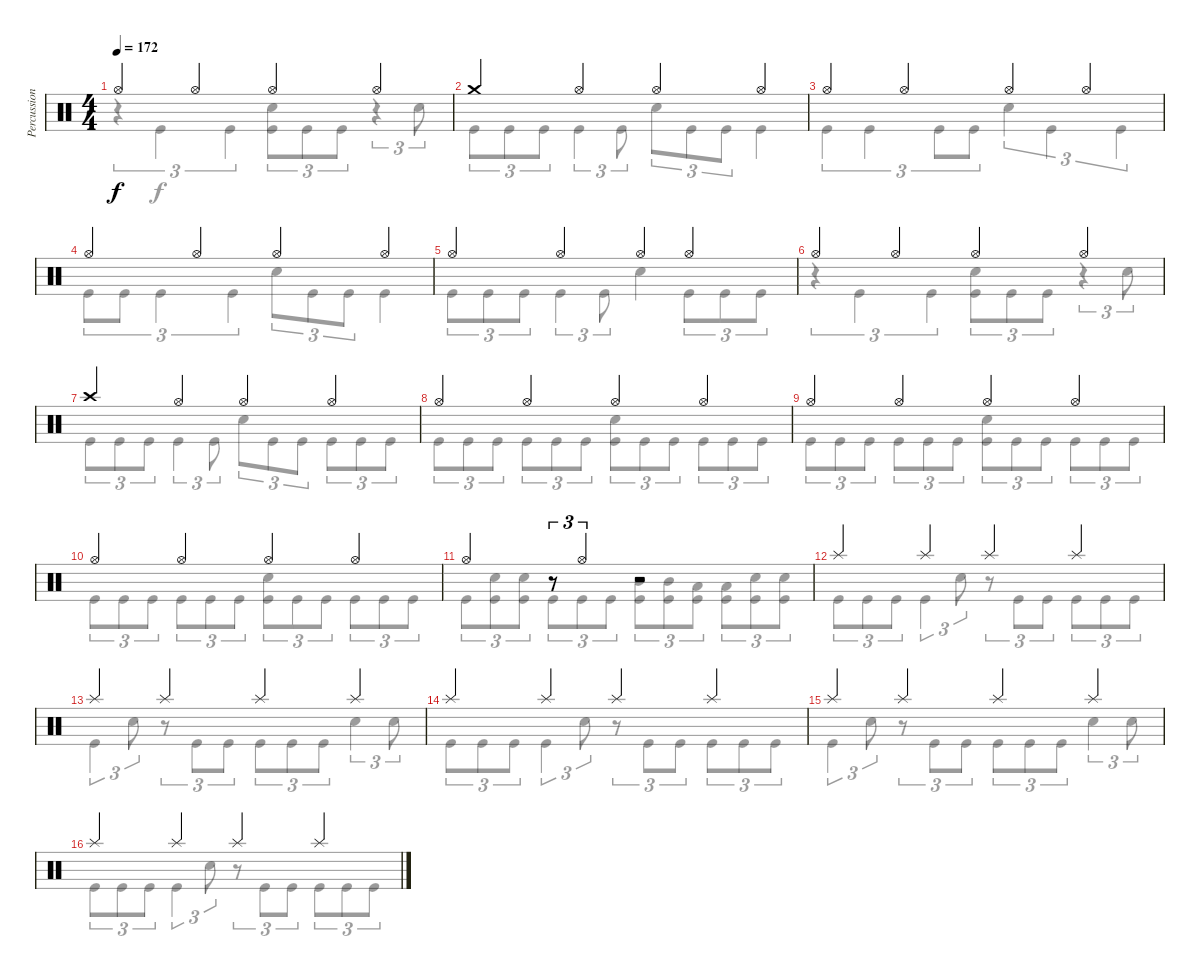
\track ("Percussions" "Percussion") {instrument percussion}
\staff {score}
\articulation defaults
\voice
\ts (4 4)
\tempo 172
\clef neutral
\ks c "Hi-Hat (open)".4{dy f} "Hi-Hat (open)".4 "Hi-Hat (open)".4 "Hi-Hat (open)".4
|
"Crash medium (hit)".4 "Hi-Hat (open)".4 "Hi-Hat (open)".4 "Hi-Hat (open)".4 |
"Hi-Hat (open)".4 "Hi-Hat (open)".4 "Hi-Hat (open)".4 "Hi-Hat (open)".4 |
"Hi-Hat (open)".4 "Hi-Hat (open)".4 "Hi-Hat (open)".4 "Hi-Hat (open)".4 |
"Hi-Hat (open)".4 "Hi-Hat (open)".4 "Hi-Hat (open)".4 "Hi-Hat (open)".4 |
"Hi-Hat (open)".4 "Hi-Hat (open)".4 "Hi-Hat (open)".4 "Hi-Hat (open)".4 |
"Crash high (hit)".4 "Hi-Hat (open)".4 "Hi-Hat (open)".4 "Hi-Hat (open)".4 |
"Hi-Hat (open)".4 "Hi-Hat (open)".4 "Hi-Hat (open)".4 "Hi-Hat (open)".4 |
"Hi-Hat (open)".4 "Hi-Hat (open)".4 "Hi-Hat (open)".4 "Hi-Hat (open)".4 |
"Hi-Hat (open)".4 "Hi-Hat (open)".4 "Hi-Hat (open)".4 "Hi-Hat (open)".4 |
"Hi-Hat (open)".4 r.8{tu (3 2)} "Hi-Hat (open)".4{tu (3 2)} r.2 |
"Splash (hit)".4 "Splash (hit)".4 "Splash (hit)".4 "Splash (hit)".4 |
"Splash (hit)".4 "Splash (hit)".4 "Splash (hit)".4 "Splash (hit)".4 |
"Splash (hit)".4 "Splash (hit)".4 "Splash (hit)".4 "Splash (hit)".4 |
"Splash (hit)".4 "Splash (hit)".4 "Splash (hit)".4 "Splash (hit)".4 |
"Splash (hit)".4 "Splash (hit)".4 "Splash (hit)".4 "Splash (hit)".4
\voice
\clef neutral
\ottava regular
\simile none
\ks c
r.4{tu (3 2) dy f} "Kick (hit)".4{tu (3 2)} "Kick (hit)".4{tu (3 2)} ("Snare (hit) 2" "Kick (hit)").8{tu (3 2)} "Kick (hit)".8{tu (3 2)} "Kick (hit)".8{tu (3 2)} r.4{tu (3 2)} "Snare (hit) 2".8{tu (3 2)} |
"Kick (hit)".8{tu (3 2)} "Kick (hit)".8{tu (3 2)} "Kick (hit)".8{tu (3 2)} "Kick (hit)".4{tu (3 2)} "Kick (hit)".8{tu (3 2)} "Snare (hit) 2".8{tu (3 2)} "Kick (hit)".8{tu (3 2)} "Kick (hit)".8{tu (3 2)} "Kick (hit)".4 |
"Kick (hit)".4{tu (3 2)} "Kick (hit)".4{tu (3 2)} "Kick (hit)".8{tu (3 2)} "Kick (hit)".8{tu (3 2)} "Snare (hit) 2".4{tu (3 2)} "Kick (hit)".4{tu (3 2)} "Kick (hit)".4{tu (3 2)} |
"Kick (hit)".8{tu (3 2)} "Kick (hit)".8{tu (3 2)} "Kick (hit)".4{tu (3 2)} "Kick (hit)".4{tu (3 2)} "Snare (hit) 2".8{tu (3 2)} "Kick (hit)".8{tu (3 2)} "Kick (hit)".8{tu (3 2)} "Kick (hit)".4 |
"Kick (hit)".8{tu (3 2)} "Kick (hit)".8{tu (3 2)} "Kick (hit)".8{tu (3 2)} "Kick (hit)".4{tu (3 2)} "Kick (hit)".8{tu (3 2)} "Snare (hit) 2".4 "Kick (hit)".8{tu (3 2)} "Kick (hit)".8{tu (3 2)} "Kick (hit)".8{tu (3 2)} |
r.4{tu (3 2)} "Kick (hit)".4{tu (3 2)} "Kick (hit)".4{tu (3 2)} ("Snare (hit) 2" "Kick (hit)").8{tu (3 2)} "Kick (hit)".8{tu (3 2)} "Kick (hit)".8{tu (3 2)} r.4{tu (3 2)} "Snare (hit) 2".8{tu (3 2)} |
"Kick (hit)".8{tu (3 2)} "Kick (hit)".8{tu (3 2)} "Kick (hit)".8{tu (3 2)} "Kick (hit)".4{tu (3 2)} "Kick (hit)".8{tu (3 2)} "Snare (hit) 2".8{tu (3 2)} "Kick (hit)".8{tu (3 2)} "Kick (hit)".8{tu (3 2)} "Kick (hit)".8{tu (3 2)} "Kick (hit)".8{tu (3 2)} "Kick (hit)".8{tu (3 2)} |
"Kick (hit)".8{tu (3 2)} "Kick (hit)".8{tu (3 2)} "Kick (hit)".8{tu (3 2)} "Kick (hit)".8{tu (3 2)} "Kick (hit)".8{tu (3 2)} "Kick (hit)".8{tu (3 2)} ("Snare (hit) 2" "Kick (hit)").8{tu (3 2)} "Kick (hit)".8{tu (3 2)} "Kick (hit)".8{tu (3 2)} "Kick (hit)".8{tu (3 2)} "Kick (hit)".8{tu (3 2)} "Kick (hit)".8{tu (3 2)} |
"Kick (hit)".8{tu (3 2)} "Kick (hit)".8{tu (3 2)} "Kick (hit)".8{tu (3 2)} "Kick (hit)".8{tu (3 2)} "Kick (hit)".8{tu (3 2)} "Kick (hit)".8{tu (3 2)} ("Snare (hit) 2" "Kick (hit)").8{tu (3 2)} "Kick (hit)".8{tu (3 2)} "Kick (hit)".8{tu (3 2)} "Kick (hit)".8{tu (3 2)} "Kick (hit)".8{tu (3 2)} "Kick (hit)".8{tu (3 2)} |
"Kick (hit)".8{tu (3 2)} "Kick (hit)".8{tu (3 2)} "Kick (hit)".8{tu (3 2)} "Kick (hit)".8{tu (3 2)} "Kick (hit)".8{tu (3 2)} "Kick (hit)".8{tu (3 2)} ("Snare (hit) 2" "Kick (hit)").8{tu (3 2)} "Kick (hit)".8{tu (3 2)} "Kick (hit)".8{tu (3 2)} "Kick (hit)".8{tu (3 2)} "Kick (hit)".8{tu (3 2)} "Kick (hit)".8{tu (3 2)} |
"Kick (hit)".8{tu (3 2)} ("Snare (hit) 2" "Kick (hit)").8{tu (3 2)} ("Snare (hit) 2" "Kick (hit)").8{tu (3 2)} "Kick (hit)".8{tu (3 2)} "Kick (hit)".8{tu (3 2)} "Kick (hit)".8{tu (3 2)} ("Mid Tom (hit)" "Kick (hit)").8{tu (3 2)} ("Mid Tom (hit)" "Kick (hit)").8{tu (3 2)} ("Low Tom (hit)" "Kick (hit)").8{tu (3 2)} ("Low Tom (hit)" "Kick (hit)").8{tu (3 2)} ("Snare (hit) 2" "Kick (hit)").8{tu (3 2)} ("Snare (hit) 2" "Kick (hit)").8{tu (3 2)} |
"Kick (hit)".8{tu (3 2)} "Kick (hit)".8{tu (3 2)} "Kick (hit)".8{tu (3 2)} "Kick (hit)".4{tu (3 2)} "Snare (hit) 2".8{tu (3 2)} r.8{tu (3 2)} "Kick (hit)".8{tu (3 2)} "Kick (hit)".8{tu (3 2)} "Kick (hit)".8{tu (3 2)} "Kick (hit)".8{tu (3 2)} "Kick (hit)".8{tu (3 2)} |
"Kick (hit)".4{tu (3 2)} "Snare (hit) 2".8{tu (3 2)} r.8{tu (3 2)} "Kick (hit)".8{tu (3 2)} "Kick (hit)".8{tu (3 2)} "Kick (hit)".8{tu (3 2)} "Kick (hit)".8{tu (3 2)} "Kick (hit)".8{tu (3 2)} "Snare (hit) 2".4{tu (3 2)} "Snare (hit) 2".8{tu (3 2)} |
"Kick (hit)".8{tu (3 2)} "Kick (hit)".8{tu (3 2)} "Kick (hit)".8{tu (3 2)} "Kick (hit)".4{tu (3 2)} "Snare (hit) 2".8{tu (3 2)} r.8{tu (3 2)} "Kick (hit)".8{tu (3 2)} "Kick (hit)".8{tu (3 2)} "Kick (hit)".8{tu (3 2)} "Kick (hit)".8{tu (3 2)} "Kick (hit)".8{tu (3 2)} |
"Kick (hit)".4{tu (3 2)} "Snare (hit) 2".8{tu (3 2)} r.8{tu (3 2)} "Kick (hit)".8{tu (3 2)} "Kick (hit)".8{tu (3 2)} "Kick (hit)".8{tu (3 2)} "Kick (hit)".8{tu (3 2)} "Kick (hit)".8{tu (3 2)} "Snare (hit) 2".4{tu (3 2)} "Snare (hit) 2".8{tu (3 2)} |
"Kick (hit)".8{tu (3 2)} "Kick (hit)".8{tu (3 2)} "Kick (hit)".8{tu (3 2)} "Kick (hit)".4{tu (3 2)} "Snare (hit) 2".8{tu (3 2)} r.8{tu (3 2)} "Kick (hit)".8{tu (3 2)} "Kick (hit)".8{tu (3 2)} "Kick (hit)".8{tu (3 2)} "Kick (hit)".8{tu (3 2)} "Kick (hit)".8{tu (3 2)}
